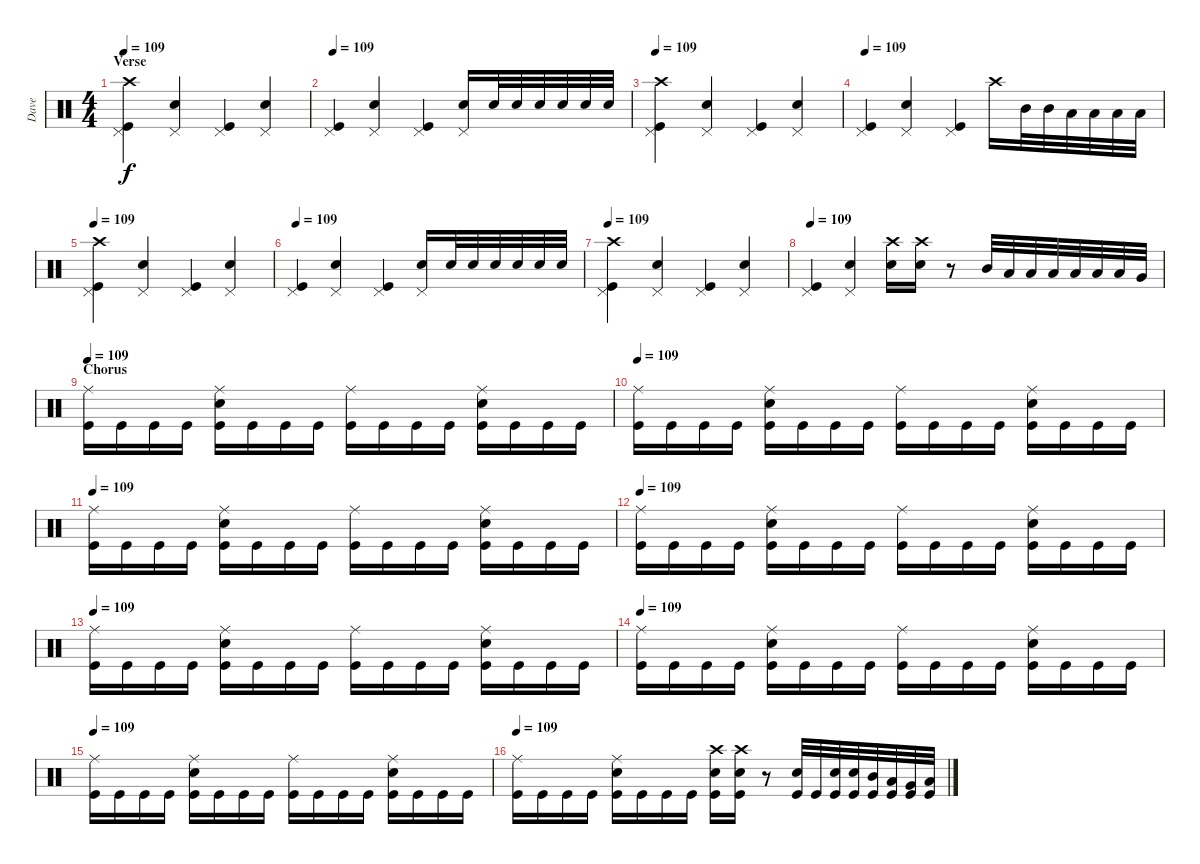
\track ("Dave" "Dave") {instrument percussion}
\staff {score}
\articulation defaults
\ts (4 4)
\section ("" "Verse")
\tempo 109
\clef neutral
\ks c
("Crash high (hit)" "Pedal Hi-Hat (hit)" "Kick (hit)").4{dy f} ("Pedal Hi-Hat (hit)" "Snare (hit) 2").4 ("Pedal Hi-Hat (hit)" "Kick (hit)").4 ("Pedal Hi-Hat (hit)" "Snare (hit) 2").4 |
\tempo 109
("Pedal Hi-Hat (hit)" "Kick (hit)").4 ("Pedal Hi-Hat (hit)" "Snare (hit) 2").4 ("Pedal Hi-Hat (hit)" "Kick (hit)").4 ("Pedal Hi-Hat (hit)" "Snare (hit) 2").16 "Snare (hit) 2".32 "Snare (hit) 2".32 "Snare (hit) 2".32 "Snare (hit) 2".32 "Snare (hit) 2".32 "Snare (hit) 2".32 |
\tempo 109
("Crash high (hit)" "Pedal Hi-Hat (hit)" "Kick (hit)").4 ("Pedal Hi-Hat (hit)" "Snare (hit) 2").4 ("Pedal Hi-Hat (hit)" "Kick (hit)").4 ("Pedal Hi-Hat (hit)" "Snare (hit) 2").4 |
\tempo 109
("Pedal Hi-Hat (hit)" "Kick (hit)").4 ("Pedal Hi-Hat (hit)" "Snare (hit) 2").4 ("Pedal Hi-Hat (hit)" "Kick (hit)").4 "Crash high (hit)".16 "Mid Tom (hit)".32 "Mid Tom (hit)".32 "Low Tom (hit)".32 "Low Tom (hit)".32 "Low Tom (hit)".32 "Low Tom (hit)".32 |
\tempo 109
("Crash high (hit)" "Pedal Hi-Hat (hit)" "Kick (hit)").4 ("Pedal Hi-Hat (hit)" "Snare (hit) 2").4 ("Pedal Hi-Hat (hit)" "Kick (hit)").4 ("Pedal Hi-Hat (hit)" "Snare (hit) 2").4 |
\tempo 109
("Pedal Hi-Hat (hit)" "Kick (hit)").4 ("Pedal Hi-Hat (hit)" "Snare (hit) 2").4 ("Pedal Hi-Hat (hit)" "Kick (hit)").4 ("Pedal Hi-Hat (hit)" "Snare (hit) 2").16 "Snare (hit) 2".32 "Snare (hit) 2".32 "Snare (hit) 2".32 "Snare (hit) 2".32 "Snare (hit) 2".32 "Snare (hit) 2".32 |
\tempo 109
("Crash high (hit)" "Pedal Hi-Hat (hit)" "Kick (hit)").4 ("Pedal Hi-Hat (hit)" "Snare (hit) 2").4 ("Pedal Hi-Hat (hit)" "Kick (hit)").4 ("Pedal Hi-Hat (hit)" "Snare (hit) 2").4 |
\tempo 109
("Pedal Hi-Hat (hit)" "Kick (hit)").4 ("Pedal Hi-Hat (hit)" "Snare (hit) 2").4 ("Crash high (hit)" "Snare (hit) 2").16 ("Crash high (hit)" "Snare (hit) 2").16 r.8 "Mid Tom (hit)".32 "Low Tom (hit)".32 "Low Tom (hit)".32 "Low Tom (hit)".32 "Low Tom (hit)".32 "Low Tom (hit)".32 "Low Tom (hit)".32 "Very Low Tom (hit)".32 |
\section ("" "Chorus")
\tempo 109
("Ride (middle)" "Kick (hit)").16 "Kick (hit)".16 "Kick (hit)".16 "Kick (hit)".16 ("Ride (middle)" "Snare (hit) 2" "Kick (hit)").16 "Kick (hit)".16 "Kick (hit)".16 "Kick (hit)".16 ("Ride (middle)" "Kick (hit)").16 "Kick (hit)".16 "Kick (hit)".16 "Kick (hit)".16 ("Ride (middle)" "Snare (hit) 2" "Kick (hit)").16 "Kick (hit)".16 "Kick (hit)".16 "Kick (hit)".16 |
\tempo 109
("Ride (middle)" "Kick (hit)").16 "Kick (hit)".16 "Kick (hit)".16 "Kick (hit)".16 ("Ride (middle)" "Snare (hit) 2" "Kick (hit)").16 "Kick (hit)".16 "Kick (hit)".16 "Kick (hit)".16 ("Ride (middle)" "Kick (hit)").16 "Kick (hit)".16 "Kick (hit)".16 "Kick (hit)".16 ("Ride (middle)" "Snare (hit) 2" "Kick (hit)").16 "Kick (hit)".16 "Kick (hit)".16 "Kick (hit)".16 |
\tempo 109
("Ride (middle)" "Kick (hit)").16 "Kick (hit)".16 "Kick (hit)".16 "Kick (hit)".16 ("Ride (middle)" "Snare (hit) 2" "Kick (hit)").16 "Kick (hit)".16 "Kick (hit)".16 "Kick (hit)".16 ("Ride (middle)" "Kick (hit)").16 "Kick (hit)".16 "Kick (hit)".16 "Kick (hit)".16 ("Ride (middle)" "Snare (hit) 2" "Kick (hit)").16 "Kick (hit)".16 "Kick (hit)".16 "Kick (hit)".16 |
\tempo 109
("Ride (middle)" "Kick (hit)").16 "Kick (hit)".16 "Kick (hit)".16 "Kick (hit)".16 ("Ride (middle)" "Snare (hit) 2" "Kick (hit)").16 "Kick (hit)".16 "Kick (hit)".16 "Kick (hit)".16 ("Ride (middle)" "Kick (hit)").16 "Kick (hit)".16 "Kick (hit)".16 "Kick (hit)".16 ("Ride (middle)" "Snare (hit) 2" "Kick (hit)").16 "Kick (hit)".16 "Kick (hit)".16 "Kick (hit)".16 |
\tempo 109
("Ride (middle)" "Kick (hit)").16 "Kick (hit)".16 "Kick (hit)".16 "Kick (hit)".16 ("Ride (middle)" "Snare (hit) 2" "Kick (hit)").16 "Kick (hit)".16 "Kick (hit)".16 "Kick (hit)".16 ("Ride (middle)" "Kick (hit)").16 "Kick (hit)".16 "Kick (hit)".16 "Kick (hit)".16 ("Ride (middle)" "Snare (hit) 2" "Kick (hit)").16 "Kick (hit)".16 "Kick (hit)".16 "Kick (hit)".16 |
\tempo 109
("Ride (middle)" "Kick (hit)").16 "Kick (hit)".16 "Kick (hit)".16 "Kick (hit)".16 ("Ride (middle)" "Snare (hit) 2" "Kick (hit)").16 "Kick (hit)".16 "Kick (hit)".16 "Kick (hit)".16 ("Ride (middle)" "Kick (hit)").16 "Kick (hit)".16 "Kick (hit)".16 "Kick (hit)".16 ("Ride (middle)" "Snare (hit) 2" "Kick (hit)").16 "Kick (hit)".16 "Kick (hit)".16 "Kick (hit)".16 |
\tempo 109
("Ride (middle)" "Kick (hit)").16 "Kick (hit)".16 "Kick (hit)".16 "Kick (hit)".16 ("Ride (middle)" "Snare (hit) 2" "Kick (hit)").16 "Kick (hit)".16 "Kick (hit)".16 "Kick (hit)".16 ("Ride (middle)" "Kick (hit)").16 "Kick (hit)".16 "Kick (hit)".16 "Kick (hit)".16 ("Ride (middle)" "Snare (hit) 2" "Kick (hit)").16 "Kick (hit)".16 "Kick (hit)".16 "Kick (hit)".16 |
\tempo 109
("Ride (middle)" "Kick (hit)").16 "Kick (hit)".16 "Kick (hit)".16 "Kick (hit)".16 ("Ride (middle)" "Snare (hit) 2" "Kick (hit)").16 "Kick (hit)".16 "Kick (hit)".16 "Kick (hit)".16 ("Crash high (hit)" "Snare (hit) 2" "Kick (hit)").16 ("Crash high (hit)" "Snare (hit) 2" "Kick (hit)").16 r.8 ("Snare (hit) 2" "Kick (hit)").32 "Kick (hit)".32 ("Snare (hit) 2" "Kick (hit)").32 ("Snare (hit) 2" "Kick (hit)").32 ("Mid Tom (hit)" "Kick (hit)").32 ("Low Tom (hit)" "Kick (hit)").32 ("Very Low Tom (hit)" "Kick (hit)").32 ("Low Floor Tom (hit)" "Kick (hit)").32
